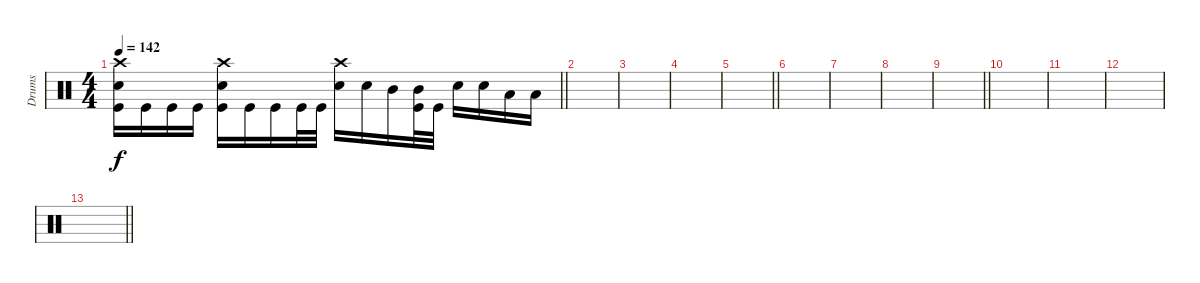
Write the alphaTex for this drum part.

\track ("Drums" "Drums") {instrument percussion}
\staff
\articulation defaults
\ts (4 4)
\tempo 142
\clef neutral
\barLineRight lightlight
\ks c
("Crash high (hit)" "Electric Snare (hit)" "Kick (hit)").16{dy f} "Kick (hit)".16 "Kick (hit)".16 "Kick (hit)".16 ("Crash high (hit)" "Electric Snare (hit)" "Kick (hit)").16 "Kick (hit)".16 "Kick (hit)".16 "Kick (hit)".32 "Kick (hit)".32 ("Crash high (hit)" "Electric Snare (hit)").16 "Electric Snare (hit)".16 "Mid Tom (hit)".16 ("Mid Tom (hit)" "Kick (hit)").32 "Kick (hit)".32 "Electric Snare (hit)".16 "Electric Snare (hit)".16 "Low Tom (hit)".16 "Low Tom (hit)".16 |
|
|
|
\barLineRight lightlight
|
|
|
|
\barLineRight lightlight
|
|
|
|
\barLineRight lightlight
